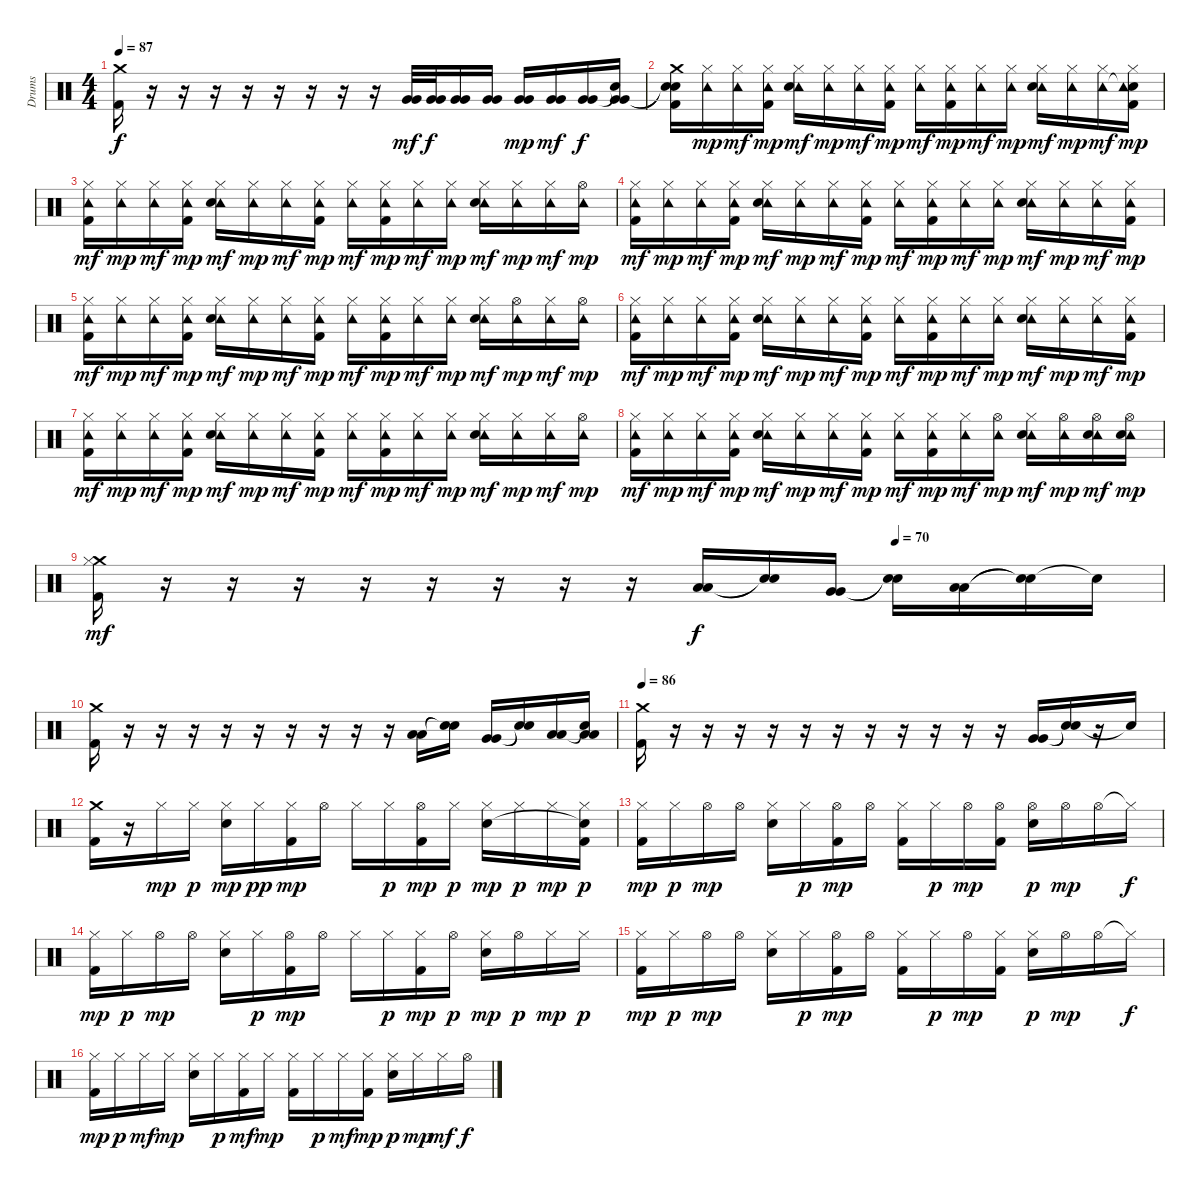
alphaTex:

\track ("Drums" "Drums") {instrument percussion}
\staff {score}
\articulation defaults
\ts (4 4)
\tempo 87
\clef neutral
\ks c
("Crash medium (hit)" "Kick (hit) 2").16{dy f} r.16 r.16 r.16 r.16 r.16 r.16 r.16 r.16 ("Very Low Tom (hit)" "Very Low Tom (hit)").32{dy mf} ("Very Low Tom (hit)" "Very Low Tom (hit)").32{dy f} ("Very Low Tom (hit)" "Very Low Tom (hit)").16 ("Very Low Tom (hit)" "Very Low Tom (hit)").16 ("Very Low Tom (hit)" "Very Low Tom (hit)").16{dy mp} ("Very Low Tom (hit)" "Very Low Tom (hit)").16{dy mf} ("Very Low Tom (hit)" "Very Low Tom (hit)").16{dy f} ("Snare (hit)"{t} "Very Low Tom (hit)" "Very Low Tom (hit)").16 |
("Crash medium (hit)" "Snare (hit)"{t} "Snare (hit)"{t} "Kick (hit) 2").16 ("Hi-Hat (closed)" "Tambourine (hit)").16{dy mp} ("Hi-Hat (closed)" "Tambourine (hit)").16{dy mf} ("Hi-Hat (closed)" "Tambourine (hit)" "Kick (hit) 2").16{dy mp} ("Hi-Hat (closed)" "Tambourine (hit)" "Electric Snare (hit)").16{dy mf} ("Hi-Hat (closed)" "Tambourine (hit)").16{dy mp} ("Hi-Hat (closed)" "Tambourine (hit)").16{dy mf} ("Hi-Hat (closed)" "Tambourine (hit)" "Kick (hit) 2").16{dy mp} ("Hi-Hat (closed)" "Tambourine (hit)").16{dy mf} ("Hi-Hat (closed)" "Tambourine (hit)" "Kick (hit) 2").16{dy mp} ("Hi-Hat (closed)" "Tambourine (hit)").16{dy mf} ("Hi-Hat (closed)" "Tambourine (hit)").16{dy mp} ("Hi-Hat (closed)" "Tambourine (hit)" "Electric Snare (hit)").16{dy mf} ("Hi-Hat (closed)" "Tambourine (hit)").16{dy mp} ("Hi-Hat (closed)" "Tambourine (hit)").16{dy mf} ("Hi-Hat (closed)" "Snare (hit)"{t} "Tambourine (hit)" "Kick (hit) 2").16{dy mp} |
("Hi-Hat (closed)" "Tambourine (hit)" "Kick (hit) 2").16{dy mf} ("Hi-Hat (closed)" "Tambourine (hit)").16{dy mp} ("Hi-Hat (closed)" "Tambourine (hit)").16{dy mf} ("Hi-Hat (closed)" "Tambourine (hit)" "Kick (hit) 2").16{dy mp} ("Hi-Hat (closed)" "Tambourine (hit)" "Electric Snare (hit)").16{dy mf} ("Hi-Hat (closed)" "Tambourine (hit)").16{dy mp} ("Hi-Hat (closed)" "Tambourine (hit)").16{dy mf} ("Hi-Hat (closed)" "Tambourine (hit)" "Kick (hit) 2").16{dy mp} ("Hi-Hat (closed)" "Tambourine (hit)").16{dy mf} ("Hi-Hat (closed)" "Tambourine (hit)" "Kick (hit) 2").16{dy mp} ("Hi-Hat (closed)" "Tambourine (hit)").16{dy mf} ("Hi-Hat (closed)" "Tambourine (hit)").16{dy mp} ("Hi-Hat (closed)" "Tambourine (hit)" "Electric Snare (hit)").16{dy mf} ("Hi-Hat (closed)" "Tambourine (hit)").16{dy mp} ("Hi-Hat (closed)" "Tambourine (hit)").16{dy mf} ("Hi-Hat (open)" "Tambourine (hit)").16{dy mp} |
("Hi-Hat (closed)" "Tambourine (hit)" "Kick (hit) 2").16{dy mf} ("Hi-Hat (closed)" "Tambourine (hit)").16{dy mp} ("Hi-Hat (closed)" "Tambourine (hit)").16{dy mf} ("Hi-Hat (closed)" "Tambourine (hit)" "Kick (hit) 2").16{dy mp} ("Hi-Hat (closed)" "Tambourine (hit)" "Electric Snare (hit)").16{dy mf} ("Hi-Hat (closed)" "Tambourine (hit)").16{dy mp} ("Hi-Hat (closed)" "Tambourine (hit)").16{dy mf} ("Hi-Hat (closed)" "Tambourine (hit)" "Kick (hit) 2").16{dy mp} ("Hi-Hat (closed)" "Tambourine (hit)").16{dy mf} ("Hi-Hat (closed)" "Tambourine (hit)" "Kick (hit) 2").16{dy mp} ("Hi-Hat (closed)" "Tambourine (hit)").16{dy mf} ("Hi-Hat (closed)" "Tambourine (hit)").16{dy mp} ("Hi-Hat (closed)" "Tambourine (hit)" "Electric Snare (hit)").16{dy mf} ("Hi-Hat (closed)" "Tambourine (hit)").16{dy mp} ("Hi-Hat (closed)" "Tambourine (hit)").16{dy mf} ("Hi-Hat (closed)" "Tambourine (hit)" "Kick (hit) 2").16{dy mp} |
("Hi-Hat (closed)" "Tambourine (hit)" "Kick (hit) 2").16{dy mf} ("Hi-Hat (closed)" "Tambourine (hit)").16{dy mp} ("Hi-Hat (closed)" "Tambourine (hit)").16{dy mf} ("Hi-Hat (closed)" "Tambourine (hit)" "Kick (hit) 2").16{dy mp} ("Hi-Hat (closed)" "Tambourine (hit)" "Electric Snare (hit)").16{dy mf} ("Hi-Hat (closed)" "Tambourine (hit)").16{dy mp} ("Hi-Hat (closed)" "Tambourine (hit)").16{dy mf} ("Hi-Hat (closed)" "Tambourine (hit)" "Kick (hit) 2").16{dy mp} ("Hi-Hat (closed)" "Tambourine (hit)").16{dy mf} ("Hi-Hat (closed)" "Tambourine (hit)" "Kick (hit) 2").16{dy mp} ("Hi-Hat (closed)" "Tambourine (hit)").16{dy mf} ("Hi-Hat (closed)" "Tambourine (hit)").16{dy mp} ("Hi-Hat (closed)" "Tambourine (hit)" "Electric Snare (hit)").16{dy mf} ("Hi-Hat (open)" "Tambourine (hit)").16{dy mp} ("Hi-Hat (closed)" "Tambourine (hit)").16{dy mf} ("Hi-Hat (open)" "Tambourine (hit)").16{dy mp} |
("Hi-Hat (closed)" "Tambourine (hit)" "Kick (hit) 2").16{dy mf} ("Hi-Hat (closed)" "Tambourine (hit)").16{dy mp} ("Hi-Hat (closed)" "Tambourine (hit)").16{dy mf} ("Hi-Hat (closed)" "Tambourine (hit)" "Kick (hit) 2").16{dy mp} ("Hi-Hat (closed)" "Tambourine (hit)" "Electric Snare (hit)").16{dy mf} ("Hi-Hat (closed)" "Tambourine (hit)").16{dy mp} ("Hi-Hat (closed)" "Tambourine (hit)").16{dy mf} ("Hi-Hat (closed)" "Tambourine (hit)" "Kick (hit) 2").16{dy mp} ("Hi-Hat (closed)" "Tambourine (hit)").16{dy mf} ("Hi-Hat (closed)" "Tambourine (hit)" "Kick (hit) 2").16{dy mp} ("Hi-Hat (closed)" "Tambourine (hit)").16{dy mf} ("Hi-Hat (closed)" "Tambourine (hit)").16{dy mp} ("Hi-Hat (closed)" "Tambourine (hit)" "Electric Snare (hit)").16{dy mf} ("Hi-Hat (closed)" "Tambourine (hit)").16{dy mp} ("Hi-Hat (closed)" "Tambourine (hit)").16{dy mf} ("Hi-Hat (closed)" "Tambourine (hit)" "Kick (hit) 2").16{dy mp} |
("Hi-Hat (closed)" "Tambourine (hit)" "Kick (hit) 2").16{dy mf} ("Hi-Hat (closed)" "Tambourine (hit)").16{dy mp} ("Hi-Hat (closed)" "Tambourine (hit)").16{dy mf} ("Hi-Hat (closed)" "Tambourine (hit)" "Kick (hit) 2").16{dy mp} ("Hi-Hat (closed)" "Tambourine (hit)" "Electric Snare (hit)").16{dy mf} ("Hi-Hat (closed)" "Tambourine (hit)").16{dy mp} ("Hi-Hat (closed)" "Tambourine (hit)").16{dy mf} ("Hi-Hat (closed)" "Tambourine (hit)" "Kick (hit) 2").16{dy mp} ("Hi-Hat (closed)" "Tambourine (hit)").16{dy mf} ("Hi-Hat (closed)" "Tambourine (hit)" "Kick (hit) 2").16{dy mp} ("Hi-Hat (closed)" "Tambourine (hit)").16{dy mf} ("Hi-Hat (closed)" "Tambourine (hit)").16{dy mp} ("Hi-Hat (closed)" "Tambourine (hit)" "Electric Snare (hit)").16{dy mf} ("Hi-Hat (closed)" "Tambourine (hit)").16{dy mp} ("Hi-Hat (closed)" "Tambourine (hit)").16{dy mf} ("Hi-Hat (open)" "Tambourine (hit)").16{dy mp} |
("Hi-Hat (closed)" "Tambourine (hit)" "Kick (hit) 2").16{dy mf} ("Hi-Hat (closed)" "Tambourine (hit)").16{dy mp} ("Hi-Hat (closed)" "Tambourine (hit)").16{dy mf} ("Hi-Hat (closed)" "Tambourine (hit)" "Kick (hit) 2").16{dy mp} ("Hi-Hat (closed)" "Tambourine (hit)" "Electric Snare (hit)").16{dy mf} ("Hi-Hat (closed)" "Tambourine (hit)").16{dy mp} ("Hi-Hat (closed)" "Tambourine (hit)").16{dy mf} ("Hi-Hat (closed)" "Tambourine (hit)" "Kick (hit) 2").16{dy mp} ("Hi-Hat (closed)" "Tambourine (hit)").16{dy mf} ("Hi-Hat (closed)" "Tambourine (hit)" "Kick (hit) 2").16{dy mp} ("Hi-Hat (closed)" "Tambourine (hit)").16{dy mf} ("Hi-Hat (open)" "Tambourine (hit)").16{dy mp} ("Hi-Hat (closed)" "Tambourine (hit)" "Electric Snare (hit)").16{dy mf} ("Hi-Hat (open)" "Tambourine (hit)").16{dy mp} ("Hi-Hat (open)" "Tambourine (hit)" "Electric Snare (hit)").16{dy mf} ("Hi-Hat (open)" "Tambourine (hit)" "Electric Snare (hit)").16{dy mp} |
\tempo (70 0.75)
("Crash medium (hit)" "Hi-Hat (closed)" "Kick (hit) 2").16{dy mf} r.16 r.16 r.16 r.16 r.16 r.16 r.16 r.16 ("Low Tom (hit)" "Low Tom (hit)").16{dy f} ("Snare (hit)"{t} "Snare (hit)"{t}).16 ("Very Low Tom (hit)" "Very Low Tom (hit)").16 ("Snare (hit)"{t} "Snare (hit)"{t}).16 ("Low Floor Tom (hit)" "Low Floor Tom (hit)").16 ("Snare (hit)"{t} "Snare (hit)"{t}).16 "Snare (hit)"{t}.16 |
("Crash medium (hit)" "Kick (hit) 2").16 r.16 r.16 r.16 r.16 r.16 r.16 r.16 r.16 r.16 ("Low Tom (hit)" "Low Tom (hit)").16 ("Snare (hit)"{t} "Snare (hit)"{t}).16 ("Very Low Tom (hit)" "Very Low Tom (hit)").16 ("Snare (hit)"{t} "Snare (hit)"{t}).16 ("Low Floor Tom (hit)" "Low Floor Tom (hit)").16 ("Snare (hit)"{t} "Low Floor Tom (hit)" "Low Floor Tom (hit)").16 |
\tempo 86
("Crash medium (hit)" "Kick (hit) 2").16 r.16 r.16 r.16 r.16 r.16 r.16 r.16 r.16 r.16 r.16 r.16 ("Very Low Tom (hit)" "Very Low Tom (hit)").16 ("Snare (hit)"{t} "Snare (hit)"{t}).16 r.16 "Snare (hit)"{t}.16 |
("Crash medium (hit)" "Kick (hit) 2").16 r.16 "Hi-Hat (closed)".16{dy mp} "Hi-Hat (closed)".16{dy p} ("Hi-Hat (closed)" "Electric Snare (hit)").16{dy mp} "Hi-Hat (closed)".16{dy pp} ("Hi-Hat (closed)" "Kick (hit) 2").16{dy mp} "Hi-Hat (open)".16 "Hi-Hat (closed)".16 "Hi-Hat (closed)".16{dy p} ("Hi-Hat (open)" "Kick (hit) 2").16{dy mp} "Hi-Hat (closed)".16{dy p} ("Hi-Hat (closed)" "Electric Snare (hit)").16{dy mp} "Hi-Hat (closed)".16{dy p} "Hi-Hat (closed)".16{dy mp} ("Hi-Hat (closed)" "Snare (hit)"{t} "Kick (hit) 2").16{dy p} |
("Hi-Hat (closed)" "Kick (hit) 2").16{dy mp} "Hi-Hat (closed)".16{dy p} "Hi-Hat (open)".16{dy mp} "Hi-Hat (open)".16 ("Hi-Hat (closed)" "Electric Snare (hit)").16 "Hi-Hat (closed)".16{dy p} ("Hi-Hat (open)" "Kick (hit) 2").16{dy mp} "Hi-Hat (open)".16 ("Hi-Hat (closed)" "Kick (hit) 2").16 "Hi-Hat (closed)".16{dy p} "Hi-Hat (open)".16{dy mp} ("Hi-Hat (open)" "Kick (hit) 2").16 ("Hi-Hat (open)" "Electric Snare (hit)").16{dy p} "Hi-Hat (open)".16{dy mp} "Hi-Hat (open)".16 "Hi-Hat (closed)"{t}.16{dy f} |
("Hi-Hat (closed)" "Kick (hit) 2").16{dy mp} "Hi-Hat (closed)".16{dy p} "Hi-Hat (open)".16{dy mp} "Hi-Hat (open)".16 ("Hi-Hat (closed)" "Electric Snare (hit)").16 "Hi-Hat (closed)".16{dy p} ("Hi-Hat (open)" "Kick (hit) 2").16{dy mp} "Hi-Hat (open)".16 "Hi-Hat (closed)".16 "Hi-Hat (closed)".16{dy p} ("Hi-Hat (closed)" "Kick (hit) 2").16{dy mp} "Hi-Hat (open)".16{dy p} ("Hi-Hat (closed)" "Electric Snare (hit)").16{dy mp} "Hi-Hat (open)".16{dy p} "Hi-Hat (closed)".16{dy mp} "Hi-Hat (closed)".16{dy p} |
("Hi-Hat (closed)" "Kick (hit) 2").16{dy mp} "Hi-Hat (closed)".16{dy p} "Hi-Hat (open)".16{dy mp} "Hi-Hat (open)".16 ("Hi-Hat (closed)" "Electric Snare (hit)").16 "Hi-Hat (closed)".16{dy p} ("Hi-Hat (open)" "Kick (hit) 2").16{dy mp} "Hi-Hat (open)".16 ("Hi-Hat (closed)" "Kick (hit) 2").16 "Hi-Hat (closed)".16{dy p} "Hi-Hat (open)".16{dy mp} ("Hi-Hat (closed)" "Kick (hit) 2").16 ("Hi-Hat (closed)" "Electric Snare (hit)").16{dy p} "Hi-Hat (open)".16{dy mp} "Hi-Hat (open)".16 "Hi-Hat (closed)"{t}.16{dy f} |
("Hi-Hat (closed)" "Kick (hit) 2").16{dy mp} "Hi-Hat (closed)".16{dy p} "Hi-Hat (closed)".16{dy mf} "Hi-Hat (closed)".16{dy mp} ("Hi-Hat (closed)" "Electric Snare (hit)").16 "Hi-Hat (closed)".16{dy p} ("Hi-Hat (closed)" "Kick (hit) 2").16{dy mf} "Hi-Hat (closed)".16{dy mp} ("Hi-Hat (closed)" "Kick (hit) 2").16 "Hi-Hat (closed)".16{dy p} "Hi-Hat (closed)".16{dy mf} ("Hi-Hat (closed)" "Kick (hit) 2").16{dy mp} ("Hi-Hat (closed)" "Electric Snare (hit)").16{dy p} "Hi-Hat (closed)".16{dy mp} "Hi-Hat (closed)".16{dy mf} "Hi-Hat (open)".16{dy f}
